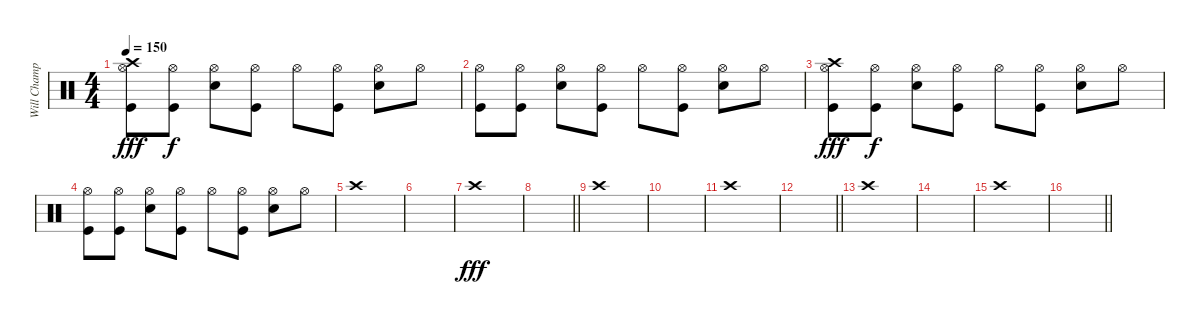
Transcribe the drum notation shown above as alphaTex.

\track ("Will Champion" "Will Champ") {instrument percussion}
\staff {score}
\articulation defaults
\ts (4 4)
\tempo 150
\clef neutral
\ks c
("Kick (hit)" "Hi-Hat (open)" "Crash high (hit)").8{dy fff} ("Kick (hit)" "Hi-Hat (open)").8{dy f} ("Snare (hit) 2" "Hi-Hat (open)").8 ("Kick (hit)" "Hi-Hat (open)").8 "Hi-Hat (open)".8 ("Kick (hit)" "Hi-Hat (open)").8 ("Snare (hit) 2" "Hi-Hat (open)").8 "Hi-Hat (open)".8 |
("Kick (hit)" "Hi-Hat (open)").8 ("Kick (hit)" "Hi-Hat (open)").8 ("Snare (hit) 2" "Hi-Hat (open)").8 ("Kick (hit)" "Hi-Hat (open)").8 "Hi-Hat (open)".8 ("Kick (hit)" "Hi-Hat (open)").8 ("Snare (hit) 2" "Hi-Hat (open)").8 "Hi-Hat (open)".8 |
("Kick (hit)" "Hi-Hat (open)" "Crash high (hit)").8{dy fff} ("Kick (hit)" "Hi-Hat (open)").8{dy f} ("Snare (hit) 2" "Hi-Hat (open)").8 ("Kick (hit)" "Hi-Hat (open)").8 "Hi-Hat (open)".8 ("Kick (hit)" "Hi-Hat (open)").8 ("Snare (hit) 2" "Hi-Hat (open)").8 "Hi-Hat (open)".8 |
("Kick (hit)" "Hi-Hat (open)").8 ("Kick (hit)" "Hi-Hat (open)").8 ("Snare (hit) 2" "Hi-Hat (open)").8 ("Kick (hit)" "Hi-Hat (open)").8 "Hi-Hat (open)".8 ("Kick (hit)" "Hi-Hat (open)").8 ("Snare (hit) 2" "Hi-Hat (open)").8 "Hi-Hat (open)".8 |
"Crash high (hit)".1 |
|
"Crash high (hit)".1{dy fff} |
\barLineRight lightlight
|
"Crash high (hit)".1 |
|
"Crash high (hit)".1 |
\barLineRight lightlight
|
"Crash high (hit)".1 |
|
"Crash high (hit)".1 |
\barLineRight lightlight
